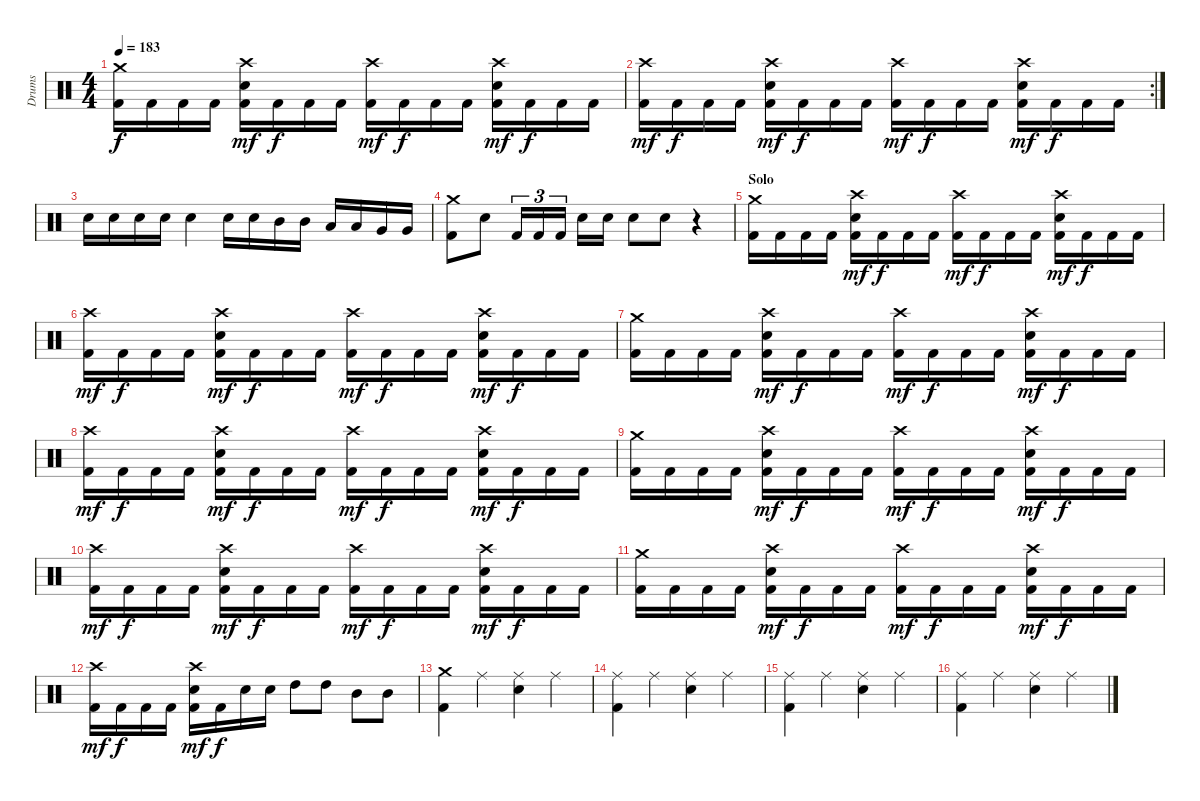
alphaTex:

\track ("Drums" "Drums") {instrument percussion}
\staff {score}
\articulation defaults
\ts (4 4)
\tempo 183
\clef neutral
\ks c
("Kick (hit) 2" "Crash medium (hit)").16{dy f} "Kick (hit) 2".16 "Kick (hit) 2".16 "Kick (hit) 2".16 ("Kick (hit) 2" "Electric Snare (hit)" "Crash high (hit)").16{dy mf} "Kick (hit) 2".16{dy f} "Kick (hit) 2".16 "Kick (hit) 2".16 ("Kick (hit) 2" "Crash high (hit)").16{dy mf} "Kick (hit) 2".16{dy f} "Kick (hit) 2".16 "Kick (hit) 2".16 ("Kick (hit) 2" "Electric Snare (hit)" "Crash high (hit)").16{dy mf} "Kick (hit) 2".16{dy f} "Kick (hit) 2".16 "Kick (hit) 2".16 |
\rc 2
("Kick (hit) 2" "Crash high (hit)").16{dy mf} "Kick (hit) 2".16{dy f} "Kick (hit) 2".16 "Kick (hit) 2".16 ("Kick (hit) 2" "Electric Snare (hit)" "Crash high (hit)").16{dy mf} "Kick (hit) 2".16{dy f} "Kick (hit) 2".16 "Kick (hit) 2".16 ("Kick (hit) 2" "Crash high (hit)").16{dy mf} "Kick (hit) 2".16{dy f} "Kick (hit) 2".16 "Kick (hit) 2".16 ("Kick (hit) 2" "Electric Snare (hit)" "Crash high (hit)").16{dy mf} "Kick (hit) 2".16{dy f} "Kick (hit) 2".16 "Kick (hit) 2".16 |
"Electric Snare (hit)".16 "Electric Snare (hit)".16 "Electric Snare (hit)".16 "Electric Snare (hit)".16 "Electric Snare (hit)".4 "Electric Snare (hit)".16 "Electric Snare (hit)".16 "Mid Tom (hit)".16 "Mid Tom (hit)".16 "Low Tom (hit)".16 "Low Tom (hit)".16 "Very Low Tom (hit)".16 "Very Low Tom (hit)".16 |
("Kick (hit) 2" "Crash medium (hit)").8 "Electric Snare (hit)".8 "Kick (hit) 2".16{tu (3 2)} "Kick (hit) 2".16{tu (3 2)} "Kick (hit) 2".16{tu (3 2)} "Electric Snare (hit)".16 "Electric Snare (hit)".16 "Electric Snare (hit)".8 "Electric Snare (hit)".8 r.4 |
\section ("" "Solo")
("Kick (hit) 2" "Crash medium (hit)").16 "Kick (hit) 2".16 "Kick (hit) 2".16 "Kick (hit) 2".16 ("Kick (hit) 2" "Electric Snare (hit)" "Crash high (hit)").16{dy mf} "Kick (hit) 2".16{dy f} "Kick (hit) 2".16 "Kick (hit) 2".16 ("Kick (hit) 2" "Crash high (hit)").16{dy mf} "Kick (hit) 2".16{dy f} "Kick (hit) 2".16 "Kick (hit) 2".16 ("Kick (hit) 2" "Electric Snare (hit)" "Crash high (hit)").16{dy mf} "Kick (hit) 2".16{dy f} "Kick (hit) 2".16 "Kick (hit) 2".16 |
("Kick (hit) 2" "Crash high (hit)").16{dy mf} "Kick (hit) 2".16{dy f} "Kick (hit) 2".16 "Kick (hit) 2".16 ("Kick (hit) 2" "Electric Snare (hit)" "Crash high (hit)").16{dy mf} "Kick (hit) 2".16{dy f} "Kick (hit) 2".16 "Kick (hit) 2".16 ("Kick (hit) 2" "Crash high (hit)").16{dy mf} "Kick (hit) 2".16{dy f} "Kick (hit) 2".16 "Kick (hit) 2".16 ("Kick (hit) 2" "Electric Snare (hit)" "Crash high (hit)").16{dy mf} "Kick (hit) 2".16{dy f} "Kick (hit) 2".16 "Kick (hit) 2".16 |
("Kick (hit) 2" "Crash medium (hit)").16 "Kick (hit) 2".16 "Kick (hit) 2".16 "Kick (hit) 2".16 ("Kick (hit) 2" "Electric Snare (hit)" "Crash high (hit)").16{dy mf} "Kick (hit) 2".16{dy f} "Kick (hit) 2".16 "Kick (hit) 2".16 ("Kick (hit) 2" "Crash high (hit)").16{dy mf} "Kick (hit) 2".16{dy f} "Kick (hit) 2".16 "Kick (hit) 2".16 ("Kick (hit) 2" "Electric Snare (hit)" "Crash high (hit)").16{dy mf} "Kick (hit) 2".16{dy f} "Kick (hit) 2".16 "Kick (hit) 2".16 |
("Kick (hit) 2" "Crash high (hit)").16{dy mf} "Kick (hit) 2".16{dy f} "Kick (hit) 2".16 "Kick (hit) 2".16 ("Kick (hit) 2" "Electric Snare (hit)" "Crash high (hit)").16{dy mf} "Kick (hit) 2".16{dy f} "Kick (hit) 2".16 "Kick (hit) 2".16 ("Kick (hit) 2" "Crash high (hit)").16{dy mf} "Kick (hit) 2".16{dy f} "Kick (hit) 2".16 "Kick (hit) 2".16 ("Kick (hit) 2" "Electric Snare (hit)" "Crash high (hit)").16{dy mf} "Kick (hit) 2".16{dy f} "Kick (hit) 2".16 "Kick (hit) 2".16 |
("Kick (hit) 2" "Crash medium (hit)").16 "Kick (hit) 2".16 "Kick (hit) 2".16 "Kick (hit) 2".16 ("Kick (hit) 2" "Electric Snare (hit)" "Crash high (hit)").16{dy mf} "Kick (hit) 2".16{dy f} "Kick (hit) 2".16 "Kick (hit) 2".16 ("Kick (hit) 2" "Crash high (hit)").16{dy mf} "Kick (hit) 2".16{dy f} "Kick (hit) 2".16 "Kick (hit) 2".16 ("Kick (hit) 2" "Electric Snare (hit)" "Crash high (hit)").16{dy mf} "Kick (hit) 2".16{dy f} "Kick (hit) 2".16 "Kick (hit) 2".16 |
("Kick (hit) 2" "Crash high (hit)").16{dy mf} "Kick (hit) 2".16{dy f} "Kick (hit) 2".16 "Kick (hit) 2".16 ("Kick (hit) 2" "Electric Snare (hit)" "Crash high (hit)").16{dy mf} "Kick (hit) 2".16{dy f} "Kick (hit) 2".16 "Kick (hit) 2".16 ("Kick (hit) 2" "Crash high (hit)").16{dy mf} "Kick (hit) 2".16{dy f} "Kick (hit) 2".16 "Kick (hit) 2".16 ("Kick (hit) 2" "Electric Snare (hit)" "Crash high (hit)").16{dy mf} "Kick (hit) 2".16{dy f} "Kick (hit) 2".16 "Kick (hit) 2".16 |
("Kick (hit) 2" "Crash medium (hit)").16 "Kick (hit) 2".16 "Kick (hit) 2".16 "Kick (hit) 2".16 ("Kick (hit) 2" "Electric Snare (hit)" "Crash high (hit)").16{dy mf} "Kick (hit) 2".16{dy f} "Kick (hit) 2".16 "Kick (hit) 2".16 ("Kick (hit) 2" "Crash high (hit)").16{dy mf} "Kick (hit) 2".16{dy f} "Kick (hit) 2".16 "Kick (hit) 2".16 ("Kick (hit) 2" "Electric Snare (hit)" "Crash high (hit)").16{dy mf} "Kick (hit) 2".16{dy f} "Kick (hit) 2".16 "Kick (hit) 2".16 |
("Kick (hit) 2" "Crash high (hit)").16{dy mf} "Kick (hit) 2".16{dy f} "Kick (hit) 2".16 "Kick (hit) 2".16 ("Kick (hit) 2" "Electric Snare (hit)" "Crash high (hit)").16{dy mf} "Kick (hit) 2".16{dy f} "Electric Snare (hit)".16 "Electric Snare (hit)".16 "High Tom (hit)".8 "High Tom (hit)".8 "Mid Tom (hit)".8 "Mid Tom (hit)".8 |
("Kick (hit) 2" "Crash medium (hit)").4 "Ride (middle)".4{volume 14} ("Electric Snare (hit)" "Ride (middle)").4 "Ride (middle)".4 |
("Kick (hit) 2" "Ride (middle)").4 "Ride (middle)".4 ("Electric Snare (hit)" "Ride (middle)").4 "Ride (middle)".4 |
("Kick (hit) 2" "Ride (middle)").4 "Ride (middle)".4 ("Electric Snare (hit)" "Ride (middle)").4 "Ride (middle)".4 |
("Kick (hit) 2" "Ride (middle)").4 "Ride (middle)".4 ("Electric Snare (hit)" "Ride (middle)").4 "Ride (middle)".4
